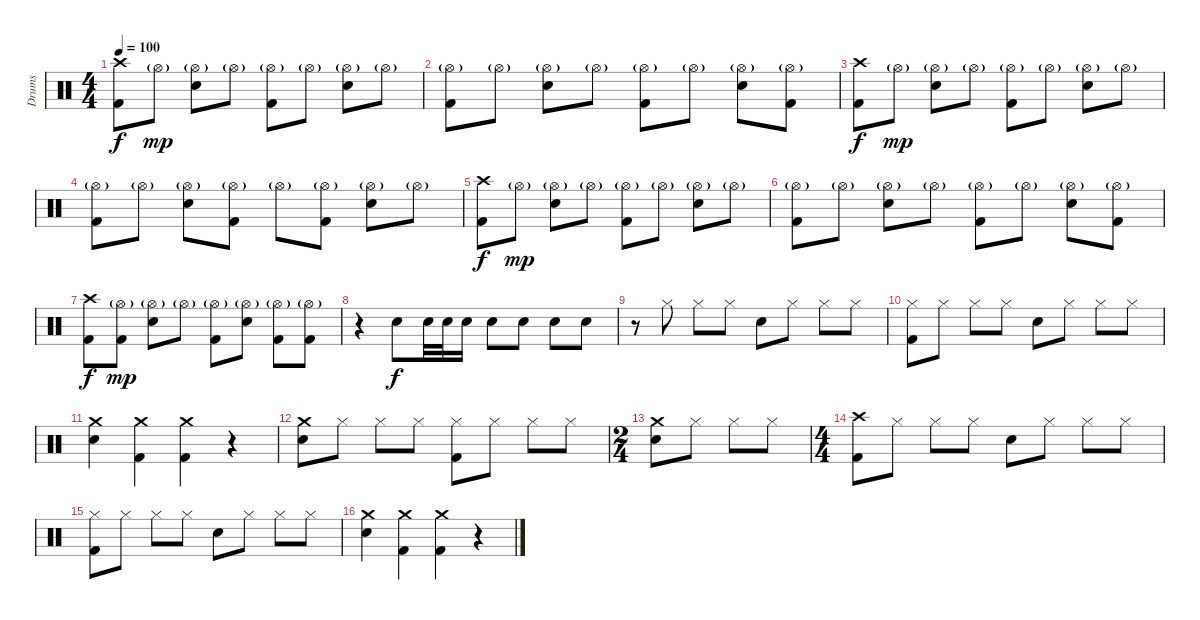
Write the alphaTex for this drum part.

\track ("Drums" "Drums") {instrument percussion}
\staff {score}
\articulation defaults
\ts (4 4)
\tempo 100
\clef neutral
\ks c
("Crash high (hit)" "Kick (hit) 2").8{dy f} "Hi-Hat (open)"{g}.8{dy mp} ("Snare (hit) 2" "Hi-Hat (open)"{g}).8 "Hi-Hat (open)"{g}.8 ("Hi-Hat (open)"{g} "Kick (hit) 2").8 "Hi-Hat (open)"{g}.8 ("Snare (hit) 2" "Hi-Hat (open)"{g}).8 "Hi-Hat (open)"{g}.8 |
("Hi-Hat (open)"{g} "Kick (hit) 2").8 "Hi-Hat (open)"{g}.8 ("Snare (hit) 2" "Hi-Hat (open)"{g}).8 "Hi-Hat (open)"{g}.8 ("Hi-Hat (open)"{g} "Kick (hit) 2").8 "Hi-Hat (open)"{g}.8 ("Snare (hit) 2" "Hi-Hat (open)"{g}).8 ("Hi-Hat (open)"{g} "Kick (hit) 2").8 |
("Crash high (hit)" "Kick (hit) 2").8{dy f} "Hi-Hat (open)"{g}.8{dy mp} ("Snare (hit) 2" "Hi-Hat (open)"{g}).8 "Hi-Hat (open)"{g}.8 ("Hi-Hat (open)"{g} "Kick (hit) 2").8 "Hi-Hat (open)"{g}.8 ("Snare (hit) 2" "Hi-Hat (open)"{g}).8 "Hi-Hat (open)"{g}.8 |
("Hi-Hat (open)"{g} "Kick (hit) 2").8 "Hi-Hat (open)"{g}.8 ("Snare (hit) 2" "Hi-Hat (open)"{g}).8 ("Hi-Hat (open)"{g} "Kick (hit) 2").8 "Hi-Hat (open)"{g}.8 ("Hi-Hat (open)"{g} "Kick (hit) 2").8 ("Snare (hit) 2" "Hi-Hat (open)"{g}).8 "Hi-Hat (open)"{g}.8 |
("Crash high (hit)" "Kick (hit) 2").8{dy f} "Hi-Hat (open)"{g}.8{dy mp} ("Snare (hit) 2" "Hi-Hat (open)"{g}).8 "Hi-Hat (open)"{g}.8 ("Hi-Hat (open)"{g} "Kick (hit) 2").8 "Hi-Hat (open)"{g}.8 ("Snare (hit) 2" "Hi-Hat (open)"{g}).8 "Hi-Hat (open)"{g}.8 |
("Hi-Hat (open)"{g} "Kick (hit) 2").8 "Hi-Hat (open)"{g}.8 ("Snare (hit) 2" "Hi-Hat (open)"{g}).8 "Hi-Hat (open)"{g}.8 ("Hi-Hat (open)"{g} "Kick (hit) 2").8 "Hi-Hat (open)"{g}.8 ("Snare (hit) 2" "Hi-Hat (open)"{g}).8 ("Hi-Hat (open)"{g} "Kick (hit) 2").8 |
("Crash high (hit)" "Kick (hit) 2").8{dy f} ("Hi-Hat (open)"{g} "Kick (hit) 2").8{dy mp} ("Snare (hit) 2" "Hi-Hat (open)"{g}).8 "Hi-Hat (open)"{g}.8 ("Hi-Hat (open)"{g} "Kick (hit) 2").8 ("Snare (hit) 2" "Hi-Hat (open)"{g}).8 ("Hi-Hat (open)"{g} "Kick (hit) 2").8 ("Hi-Hat (open)"{g} "Kick (hit) 2").8 |
r.4 "Snare (hit) 2".8{dy f} "Snare (hit) 2".32 "Snare (hit) 2".32 "Snare (hit) 2".16 "Snare (hit) 2".8 "Snare (hit) 2".8 "Snare (hit) 2".8 "Snare (hit) 2".8 |
r.8 "Hi-Hat (closed)".8 "Hi-Hat (closed)".8 "Hi-Hat (closed)".8 "Snare (hit) 2".8 "Hi-Hat (closed)".8 "Hi-Hat (closed)".8 "Hi-Hat (closed)".8 |
("Hi-Hat (closed)" "Kick (hit) 2").8 "Hi-Hat (closed)".8 "Hi-Hat (closed)".8 "Hi-Hat (closed)".8 "Snare (hit) 2".8 "Hi-Hat (closed)".8 "Hi-Hat (closed)".8 "Hi-Hat (closed)".8 |
("Snare (hit) 2" "Crash medium (hit)").4 ("Crash medium (hit)" "Kick (hit) 2").4 ("Crash medium (hit)" "Kick (hit) 2").4 r.4 |
("Snare (hit) 2" "Crash medium (hit)").8 "Hi-Hat (closed)".8 "Hi-Hat (closed)".8 "Hi-Hat (closed)".8 ("Hi-Hat (closed)" "Kick (hit) 2").8 "Hi-Hat (closed)".8 "Hi-Hat (closed)".8 "Hi-Hat (closed)".8 |
\ts (2 4)
("Snare (hit) 2" "Crash medium (hit)").8 "Hi-Hat (closed)".8 "Hi-Hat (closed)".8 "Hi-Hat (closed)".8 |
\ts (4 4)
("Crash high (hit)" "Kick (hit) 2").8 "Hi-Hat (closed)".8 "Hi-Hat (closed)".8 "Hi-Hat (closed)".8 "Snare (hit) 2".8 "Hi-Hat (closed)".8 "Hi-Hat (closed)".8 "Hi-Hat (closed)".8 |
("Hi-Hat (closed)" "Kick (hit) 2").8 "Hi-Hat (closed)".8 "Hi-Hat (closed)".8 "Hi-Hat (closed)".8 "Snare (hit) 2".8 "Hi-Hat (closed)".8 "Hi-Hat (closed)".8 "Hi-Hat (closed)".8 |
("Snare (hit) 2" "Crash medium (hit)").4 ("Crash medium (hit)" "Kick (hit) 2").4 ("Crash medium (hit)" "Kick (hit) 2").4 r.4
